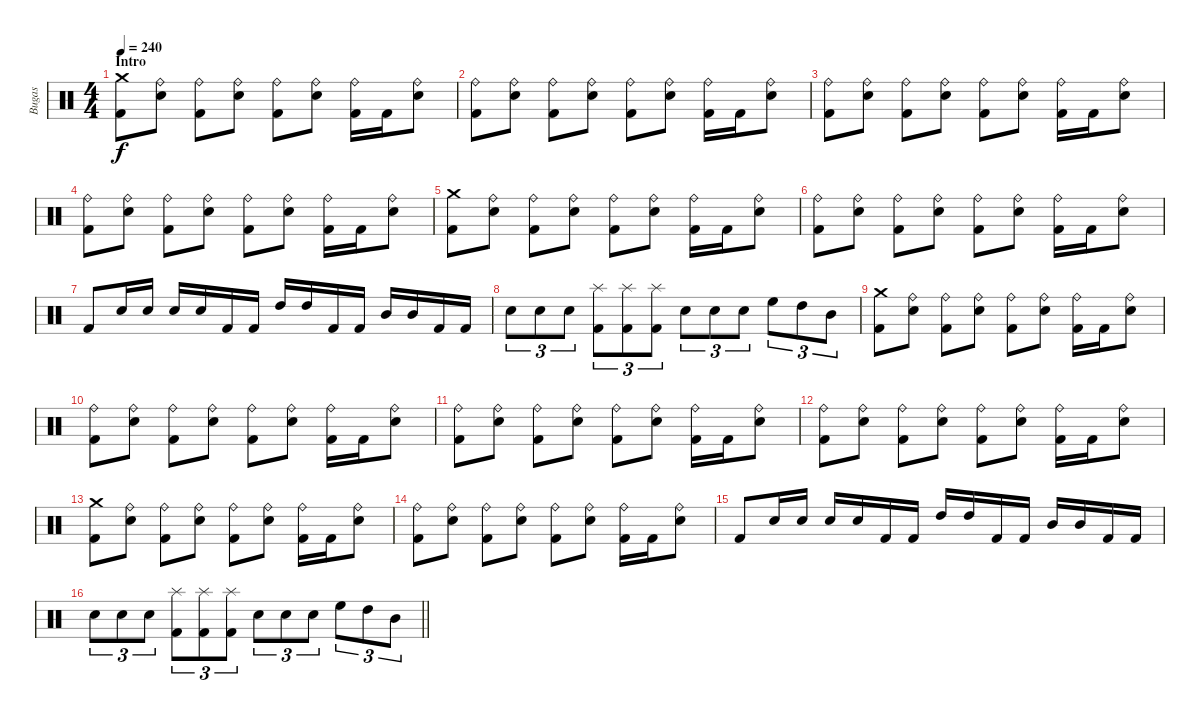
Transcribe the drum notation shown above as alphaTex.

\track ("Bugas" "Bugas") {instrument percussion}
\staff {score}
\articulation defaults
\ts (4 4)
\section ("" "Intro")
\tempo 240
\clef neutral
\ks c
("Crash medium (hit)" "Kick (hit) 2").8{dy f} ("Ride (bell)" "Electric Snare (hit)").8 ("Ride (bell)" "Kick (hit) 2").8 ("Ride (bell)" "Electric Snare (hit)").8 ("Ride (bell)" "Kick (hit) 2").8 ("Ride (bell)" "Electric Snare (hit)").8 ("Ride (bell)" "Kick (hit) 2").16 "Kick (hit) 2".16 ("Ride (bell)" "Electric Snare (hit)").8 |
("Ride (bell)" "Kick (hit) 2").8 ("Ride (bell)" "Electric Snare (hit)").8 ("Ride (bell)" "Kick (hit) 2").8 ("Ride (bell)" "Electric Snare (hit)").8 ("Ride (bell)" "Kick (hit) 2").8 ("Ride (bell)" "Electric Snare (hit)").8 ("Ride (bell)" "Kick (hit) 2").16 "Kick (hit) 2".16 ("Ride (bell)" "Electric Snare (hit)").8 |
("Ride (bell)" "Kick (hit) 2").8 ("Ride (bell)" "Electric Snare (hit)").8 ("Ride (bell)" "Kick (hit) 2").8 ("Ride (bell)" "Electric Snare (hit)").8 ("Ride (bell)" "Kick (hit) 2").8 ("Ride (bell)" "Electric Snare (hit)").8 ("Ride (bell)" "Kick (hit) 2").16 "Kick (hit) 2".16 ("Ride (bell)" "Electric Snare (hit)").8 |
("Ride (bell)" "Kick (hit) 2").8 ("Ride (bell)" "Electric Snare (hit)").8 ("Ride (bell)" "Kick (hit) 2").8 ("Ride (bell)" "Electric Snare (hit)").8 ("Ride (bell)" "Kick (hit) 2").8 ("Ride (bell)" "Electric Snare (hit)").8 ("Ride (bell)" "Kick (hit) 2").16 "Kick (hit) 2".16 ("Ride (bell)" "Electric Snare (hit)").8 |
("Crash medium (hit)" "Kick (hit) 2").8 ("Ride (bell)" "Electric Snare (hit)").8 ("Ride (bell)" "Kick (hit) 2").8 ("Ride (bell)" "Electric Snare (hit)").8 ("Ride (bell)" "Kick (hit) 2").8 ("Ride (bell)" "Electric Snare (hit)").8 ("Ride (bell)" "Kick (hit) 2").16 "Kick (hit) 2".16 ("Ride (bell)" "Electric Snare (hit)").8 |
("Ride (bell)" "Kick (hit) 2").8 ("Ride (bell)" "Electric Snare (hit)").8 ("Ride (bell)" "Kick (hit) 2").8 ("Ride (bell)" "Electric Snare (hit)").8 ("Ride (bell)" "Kick (hit) 2").8 ("Ride (bell)" "Electric Snare (hit)").8 ("Ride (bell)" "Kick (hit) 2").16 "Kick (hit) 2".16 ("Ride (bell)" "Electric Snare (hit)").8 |
"Kick (hit) 2".8 "Electric Snare (hit)".16 "Electric Snare (hit)".16 "Electric Snare (hit)".16 "Electric Snare (hit)".16 "Kick (hit) 2".16 "Kick (hit) 2".16 "High Tom (hit)".16 "High Tom (hit)".16 "Kick (hit) 2".16 "Kick (hit) 2".16 "Mid Tom (hit)".16 "Mid Tom (hit)".16 "Kick (hit) 2".16 "Kick (hit) 2".16 |
"Electric Snare (hit)".8{tu (3 2)} "Electric Snare (hit)".8{tu (3 2)} "Electric Snare (hit)".8{tu (3 2)} ("Splash (hit)" "Kick (hit) 2").8{tu (3 2)} ("Splash (hit)" "Kick (hit) 2").8{tu (3 2)} ("Splash (hit)" "Kick (hit) 2").8{tu (3 2)} "Electric Snare (hit)".8{tu (3 2)} "Electric Snare (hit)".8{tu (3 2)} "Electric Snare (hit)".8{tu (3 2)} "High Floor Tom (hit)".8{tu (3 2)} "High Tom (hit)".8{tu (3 2)} "Mid Tom (hit)".8{tu (3 2)} |
("Crash medium (hit)" "Kick (hit) 2").8 ("Ride (bell)" "Electric Snare (hit)").8 ("Ride (bell)" "Kick (hit) 2").8 ("Ride (bell)" "Electric Snare (hit)").8 ("Ride (bell)" "Kick (hit) 2").8 ("Ride (bell)" "Electric Snare (hit)").8 ("Ride (bell)" "Kick (hit) 2").16 "Kick (hit) 2".16 ("Ride (bell)" "Electric Snare (hit)").8 |
("Ride (bell)" "Kick (hit) 2").8 ("Ride (bell)" "Electric Snare (hit)").8 ("Ride (bell)" "Kick (hit) 2").8 ("Ride (bell)" "Electric Snare (hit)").8 ("Ride (bell)" "Kick (hit) 2").8 ("Ride (bell)" "Electric Snare (hit)").8 ("Ride (bell)" "Kick (hit) 2").16 "Kick (hit) 2".16 ("Ride (bell)" "Electric Snare (hit)").8 |
("Ride (bell)" "Kick (hit) 2").8 ("Ride (bell)" "Electric Snare (hit)").8 ("Ride (bell)" "Kick (hit) 2").8 ("Ride (bell)" "Electric Snare (hit)").8 ("Ride (bell)" "Kick (hit) 2").8 ("Ride (bell)" "Electric Snare (hit)").8 ("Ride (bell)" "Kick (hit) 2").16 "Kick (hit) 2".16 ("Ride (bell)" "Electric Snare (hit)").8 |
("Ride (bell)" "Kick (hit) 2").8 ("Ride (bell)" "Electric Snare (hit)").8 ("Ride (bell)" "Kick (hit) 2").8 ("Ride (bell)" "Electric Snare (hit)").8 ("Ride (bell)" "Kick (hit) 2").8 ("Ride (bell)" "Electric Snare (hit)").8 ("Ride (bell)" "Kick (hit) 2").16 "Kick (hit) 2".16 ("Ride (bell)" "Electric Snare (hit)").8 |
("Crash medium (hit)" "Kick (hit) 2").8 ("Ride (bell)" "Electric Snare (hit)").8 ("Ride (bell)" "Kick (hit) 2").8 ("Ride (bell)" "Electric Snare (hit)").8 ("Ride (bell)" "Kick (hit) 2").8 ("Ride (bell)" "Electric Snare (hit)").8 ("Ride (bell)" "Kick (hit) 2").16 "Kick (hit) 2".16 ("Ride (bell)" "Electric Snare (hit)").8 |
("Ride (bell)" "Kick (hit) 2").8 ("Ride (bell)" "Electric Snare (hit)").8 ("Ride (bell)" "Kick (hit) 2").8 ("Ride (bell)" "Electric Snare (hit)").8 ("Ride (bell)" "Kick (hit) 2").8 ("Ride (bell)" "Electric Snare (hit)").8 ("Ride (bell)" "Kick (hit) 2").16 "Kick (hit) 2".16 ("Ride (bell)" "Electric Snare (hit)").8 |
"Kick (hit) 2".8 "Electric Snare (hit)".16 "Electric Snare (hit)".16 "Electric Snare (hit)".16 "Electric Snare (hit)".16 "Kick (hit) 2".16 "Kick (hit) 2".16 "High Tom (hit)".16 "High Tom (hit)".16 "Kick (hit) 2".16 "Kick (hit) 2".16 "Mid Tom (hit)".16 "Mid Tom (hit)".16 "Kick (hit) 2".16 "Kick (hit) 2".16 |
\barLineRight lightlight "Electric Snare (hit)".8{tu (3 2)} "Electric Snare (hit)".8{tu (3 2)} "Electric Snare (hit)".8{tu (3 2)}
("Splash (hit)" "Kick (hit) 2").8{tu (3 2)} ("Splash (hit)" "Kick (hit) 2").8{tu (3 2)} ("Splash (hit)" "Kick (hit) 2").8{tu (3 2)} "Electric Snare (hit)".8{tu (3 2)} "Electric Snare (hit)".8{tu (3 2)} "Electric Snare (hit)".8{tu (3 2)} "High Floor Tom (hit)".8{tu (3 2)} "High Tom (hit)".8{tu (3 2)} "Mid Tom (hit)".8{tu (3 2)}
